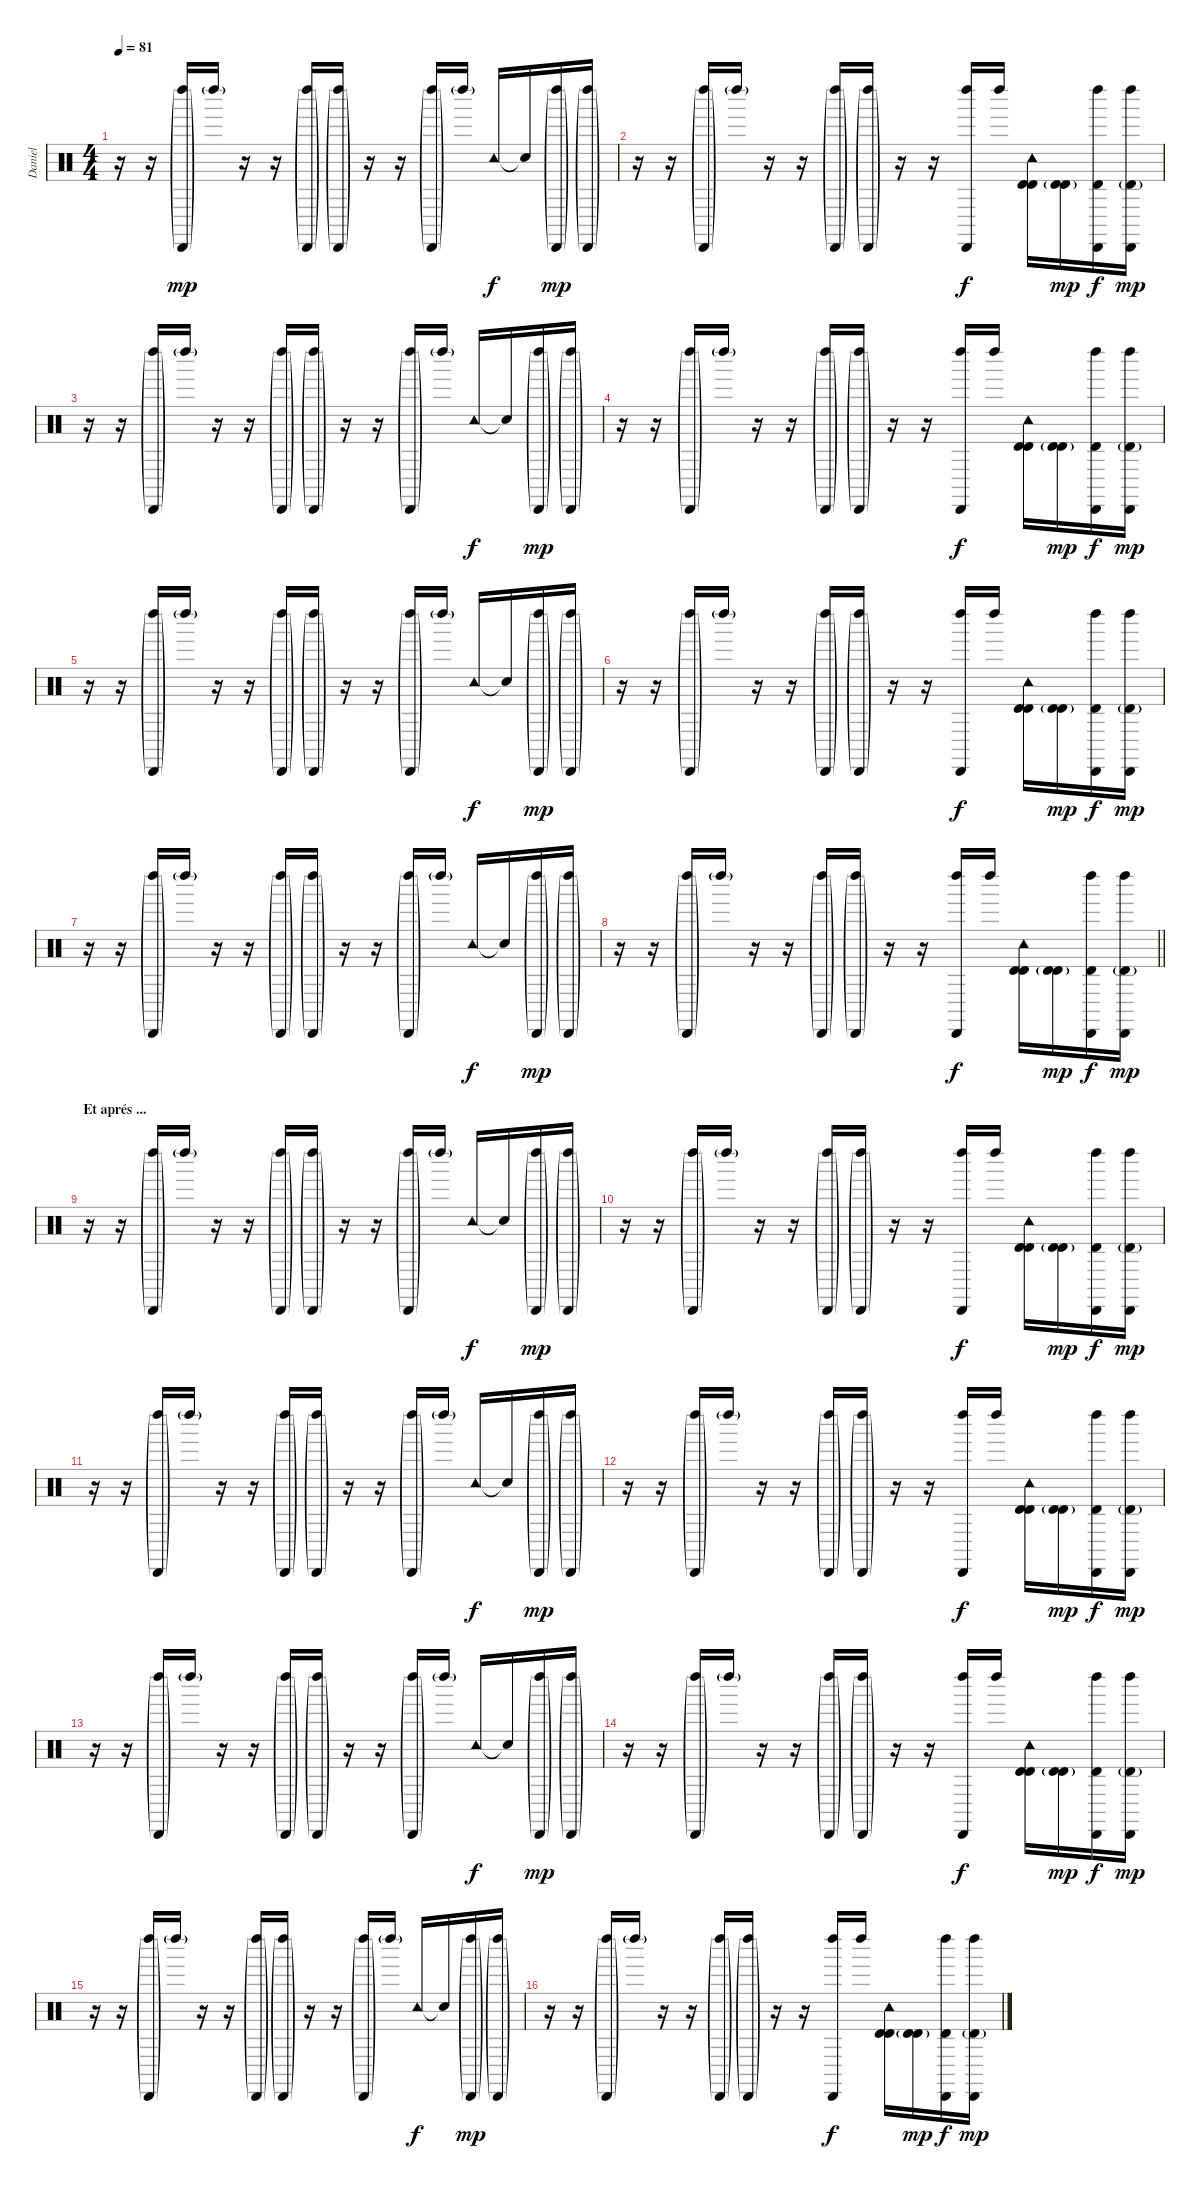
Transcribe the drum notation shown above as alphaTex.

\track ("Daniel" "Daniel") {instrument percussion}
\staff {score}
\articulation defaults
\ts (4 4)
\tempo 81
\clef neutral
\ks c
r.16{dy mp} r.16 ("Left Maraca (hit)"{g} "Cabasa (hit)"{g}).16 "Left Maraca (hit)"{g}.16 r.16 r.16 ("Left Maraca (hit)"{g} "Cabasa (hit)"{g}).16 ("Left Maraca (hit)"{g} "Cabasa (hit)"{g}).16 r.16 r.16 ("Left Maraca (hit)"{g} "Cabasa (hit)"{g}).16 "Left Maraca (hit)"{g}.16 "Tambourine (hit)".16{dy f} "Snare (hit)"{t}.16 ("Left Maraca (hit)"{g} "Cabasa (hit)"{g}).16{dy mp} ("Left Maraca (hit)"{g} "Cabasa (hit)"{g}).16 |
r.16 r.16 ("Left Maraca (hit)"{g} "Cabasa (hit)"{g}).16 "Left Maraca (hit)"{g}.16 r.16 r.16 ("Left Maraca (hit)"{g} "Cabasa (hit)"{g}).16 ("Left Maraca (hit)"{g} "Cabasa (hit)"{g}).16 r.16 r.16 ("Left Maraca (hit)" "Cabasa (hit)").16{dy f} "Left Maraca (hit)".16 ("Tambourine (hit)" "Timbale high (hit)" "Timbale high (hit)").16 ("Timbale high (hit)"{g} "Timbale high (hit)").16{dy mp} ("Left Maraca (hit)" "Cabasa (hit)" "Timbale high (hit)").16{dy f} ("Left Maraca (hit)" "Cabasa (hit)" "Timbale high (hit)"{g}).16{dy mp} |
r.16 r.16 ("Left Maraca (hit)"{g} "Cabasa (hit)"{g}).16 "Left Maraca (hit)"{g}.16 r.16 r.16 ("Left Maraca (hit)"{g} "Cabasa (hit)"{g}).16 ("Left Maraca (hit)"{g} "Cabasa (hit)"{g}).16 r.16 r.16 ("Left Maraca (hit)"{g} "Cabasa (hit)"{g}).16 "Left Maraca (hit)"{g}.16 "Tambourine (hit)".16{dy f} "Snare (hit)"{t}.16 ("Left Maraca (hit)"{g} "Cabasa (hit)"{g}).16{dy mp} ("Left Maraca (hit)"{g} "Cabasa (hit)"{g}).16 |
r.16 r.16 ("Left Maraca (hit)"{g} "Cabasa (hit)"{g}).16 "Left Maraca (hit)"{g}.16 r.16 r.16 ("Left Maraca (hit)"{g} "Cabasa (hit)"{g}).16 ("Left Maraca (hit)"{g} "Cabasa (hit)"{g}).16 r.16 r.16 ("Left Maraca (hit)" "Cabasa (hit)").16{dy f} "Left Maraca (hit)".16 ("Tambourine (hit)" "Timbale high (hit)" "Timbale high (hit)").16 ("Timbale high (hit)"{g} "Timbale high (hit)").16{dy mp} ("Left Maraca (hit)" "Cabasa (hit)" "Timbale high (hit)").16{dy f} ("Left Maraca (hit)" "Cabasa (hit)" "Timbale high (hit)"{g}).16{dy mp} |
r.16 r.16 ("Left Maraca (hit)"{g} "Cabasa (hit)"{g}).16 "Left Maraca (hit)"{g}.16 r.16 r.16 ("Left Maraca (hit)"{g} "Cabasa (hit)"{g}).16 ("Left Maraca (hit)"{g} "Cabasa (hit)"{g}).16 r.16 r.16 ("Left Maraca (hit)"{g} "Cabasa (hit)"{g}).16 "Left Maraca (hit)"{g}.16 "Tambourine (hit)".16{dy f} "Snare (hit)"{t}.16 ("Left Maraca (hit)"{g} "Cabasa (hit)"{g}).16{dy mp} ("Left Maraca (hit)"{g} "Cabasa (hit)"{g}).16 |
r.16 r.16 ("Left Maraca (hit)"{g} "Cabasa (hit)"{g}).16 "Left Maraca (hit)"{g}.16 r.16 r.16 ("Left Maraca (hit)"{g} "Cabasa (hit)"{g}).16 ("Left Maraca (hit)"{g} "Cabasa (hit)"{g}).16 r.16 r.16 ("Left Maraca (hit)" "Cabasa (hit)").16{dy f} "Left Maraca (hit)".16 ("Tambourine (hit)" "Timbale high (hit)" "Timbale high (hit)").16 ("Timbale high (hit)"{g} "Timbale high (hit)").16{dy mp} ("Left Maraca (hit)" "Cabasa (hit)" "Timbale high (hit)").16{dy f} ("Left Maraca (hit)" "Cabasa (hit)" "Timbale high (hit)"{g}).16{dy mp} |
r.16 r.16 ("Left Maraca (hit)"{g} "Cabasa (hit)"{g}).16 "Left Maraca (hit)"{g}.16 r.16 r.16 ("Left Maraca (hit)"{g} "Cabasa (hit)"{g}).16 ("Left Maraca (hit)"{g} "Cabasa (hit)"{g}).16 r.16 r.16 ("Left Maraca (hit)"{g} "Cabasa (hit)"{g}).16 "Left Maraca (hit)"{g}.16 "Tambourine (hit)".16{dy f} "Snare (hit)"{t}.16 ("Left Maraca (hit)"{g} "Cabasa (hit)"{g}).16{dy mp} ("Left Maraca (hit)"{g} "Cabasa (hit)"{g}).16 |
\barLineRight lightlight
r.16 r.16 ("Left Maraca (hit)"{g} "Cabasa (hit)"{g}).16 "Left Maraca (hit)"{g}.16 r.16 r.16 ("Left Maraca (hit)"{g} "Cabasa (hit)"{g}).16 ("Left Maraca (hit)"{g} "Cabasa (hit)"{g}).16 r.16 r.16 ("Left Maraca (hit)" "Cabasa (hit)").16{dy f} "Left Maraca (hit)".16 ("Tambourine (hit)" "Timbale high (hit)" "Timbale high (hit)").16 ("Timbale high (hit)"{g} "Timbale high (hit)").16{dy mp} ("Left Maraca (hit)" "Cabasa (hit)" "Timbale high (hit)").16{dy f} ("Left Maraca (hit)" "Cabasa (hit)" "Timbale high (hit)"{g}).16{dy mp} |
\section ("" "Et aprés ...")
r.16 r.16 ("Left Maraca (hit)"{g} "Cabasa (hit)"{g}).16 "Left Maraca (hit)"{g}.16 r.16 r.16 ("Left Maraca (hit)"{g} "Cabasa (hit)"{g}).16 ("Left Maraca (hit)"{g} "Cabasa (hit)"{g}).16 r.16 r.16 ("Left Maraca (hit)"{g} "Cabasa (hit)"{g}).16 "Left Maraca (hit)"{g}.16 "Tambourine (hit)".16{dy f} "Snare (hit)"{t}.16 ("Left Maraca (hit)"{g} "Cabasa (hit)"{g}).16{dy mp} ("Left Maraca (hit)"{g} "Cabasa (hit)"{g}).16 |
r.16 r.16 ("Left Maraca (hit)"{g} "Cabasa (hit)"{g}).16 "Left Maraca (hit)"{g}.16 r.16 r.16 ("Left Maraca (hit)"{g} "Cabasa (hit)"{g}).16 ("Left Maraca (hit)"{g} "Cabasa (hit)"{g}).16 r.16 r.16 ("Left Maraca (hit)" "Cabasa (hit)").16{dy f} "Left Maraca (hit)".16 ("Tambourine (hit)" "Timbale high (hit)" "Timbale high (hit)").16 ("Timbale high (hit)"{g} "Timbale high (hit)").16{dy mp} ("Left Maraca (hit)" "Cabasa (hit)" "Timbale high (hit)").16{dy f} ("Left Maraca (hit)" "Cabasa (hit)" "Timbale high (hit)"{g}).16{dy mp} |
r.16 r.16 ("Left Maraca (hit)"{g} "Cabasa (hit)"{g}).16 "Left Maraca (hit)"{g}.16 r.16 r.16 ("Left Maraca (hit)"{g} "Cabasa (hit)"{g}).16 ("Left Maraca (hit)"{g} "Cabasa (hit)"{g}).16 r.16 r.16 ("Left Maraca (hit)"{g} "Cabasa (hit)"{g}).16 "Left Maraca (hit)"{g}.16 "Tambourine (hit)".16{dy f} "Snare (hit)"{t}.16 ("Left Maraca (hit)"{g} "Cabasa (hit)"{g}).16{dy mp} ("Left Maraca (hit)"{g} "Cabasa (hit)"{g}).16 |
r.16 r.16 ("Left Maraca (hit)"{g} "Cabasa (hit)"{g}).16 "Left Maraca (hit)"{g}.16 r.16 r.16 ("Left Maraca (hit)"{g} "Cabasa (hit)"{g}).16 ("Left Maraca (hit)"{g} "Cabasa (hit)"{g}).16 r.16 r.16 ("Left Maraca (hit)" "Cabasa (hit)").16{dy f} "Left Maraca (hit)".16 ("Tambourine (hit)" "Timbale high (hit)" "Timbale high (hit)").16 ("Timbale high (hit)"{g} "Timbale high (hit)").16{dy mp} ("Left Maraca (hit)" "Cabasa (hit)" "Timbale high (hit)").16{dy f} ("Left Maraca (hit)" "Cabasa (hit)" "Timbale high (hit)"{g}).16{dy mp} |
r.16 r.16 ("Left Maraca (hit)"{g} "Cabasa (hit)"{g}).16 "Left Maraca (hit)"{g}.16 r.16 r.16 ("Left Maraca (hit)"{g} "Cabasa (hit)"{g}).16 ("Left Maraca (hit)"{g} "Cabasa (hit)"{g}).16 r.16 r.16 ("Left Maraca (hit)"{g} "Cabasa (hit)"{g}).16 "Left Maraca (hit)"{g}.16 "Tambourine (hit)".16{dy f} "Snare (hit)"{t}.16 ("Left Maraca (hit)"{g} "Cabasa (hit)"{g}).16{dy mp} ("Left Maraca (hit)"{g} "Cabasa (hit)"{g}).16 |
r.16 r.16 ("Left Maraca (hit)"{g} "Cabasa (hit)"{g}).16 "Left Maraca (hit)"{g}.16 r.16 r.16 ("Left Maraca (hit)"{g} "Cabasa (hit)"{g}).16 ("Left Maraca (hit)"{g} "Cabasa (hit)"{g}).16 r.16 r.16 ("Left Maraca (hit)" "Cabasa (hit)").16{dy f} "Left Maraca (hit)".16 ("Tambourine (hit)" "Timbale high (hit)" "Timbale high (hit)").16 ("Timbale high (hit)"{g} "Timbale high (hit)").16{dy mp} ("Left Maraca (hit)" "Cabasa (hit)" "Timbale high (hit)").16{dy f} ("Left Maraca (hit)" "Cabasa (hit)" "Timbale high (hit)"{g}).16{dy mp} |
r.16 r.16 ("Left Maraca (hit)"{g} "Cabasa (hit)"{g}).16 "Left Maraca (hit)"{g}.16 r.16 r.16 ("Left Maraca (hit)"{g} "Cabasa (hit)"{g}).16 ("Left Maraca (hit)"{g} "Cabasa (hit)"{g}).16 r.16 r.16 ("Left Maraca (hit)"{g} "Cabasa (hit)"{g}).16 "Left Maraca (hit)"{g}.16 "Tambourine (hit)".16{dy f} "Snare (hit)"{t}.16 ("Left Maraca (hit)"{g} "Cabasa (hit)"{g}).16{dy mp} ("Left Maraca (hit)"{g} "Cabasa (hit)"{g}).16 |
r.16 r.16 ("Left Maraca (hit)"{g} "Cabasa (hit)"{g}).16 "Left Maraca (hit)"{g}.16 r.16 r.16 ("Left Maraca (hit)"{g} "Cabasa (hit)"{g}).16 ("Left Maraca (hit)"{g} "Cabasa (hit)"{g}).16 r.16 r.16 ("Left Maraca (hit)" "Cabasa (hit)").16{dy f} "Left Maraca (hit)".16 ("Tambourine (hit)" "Timbale high (hit)" "Timbale high (hit)").16 ("Timbale high (hit)"{g} "Timbale high (hit)").16{dy mp} ("Left Maraca (hit)" "Cabasa (hit)" "Timbale high (hit)").16{dy f} ("Left Maraca (hit)" "Cabasa (hit)" "Timbale high (hit)"{g}).16{dy mp}
